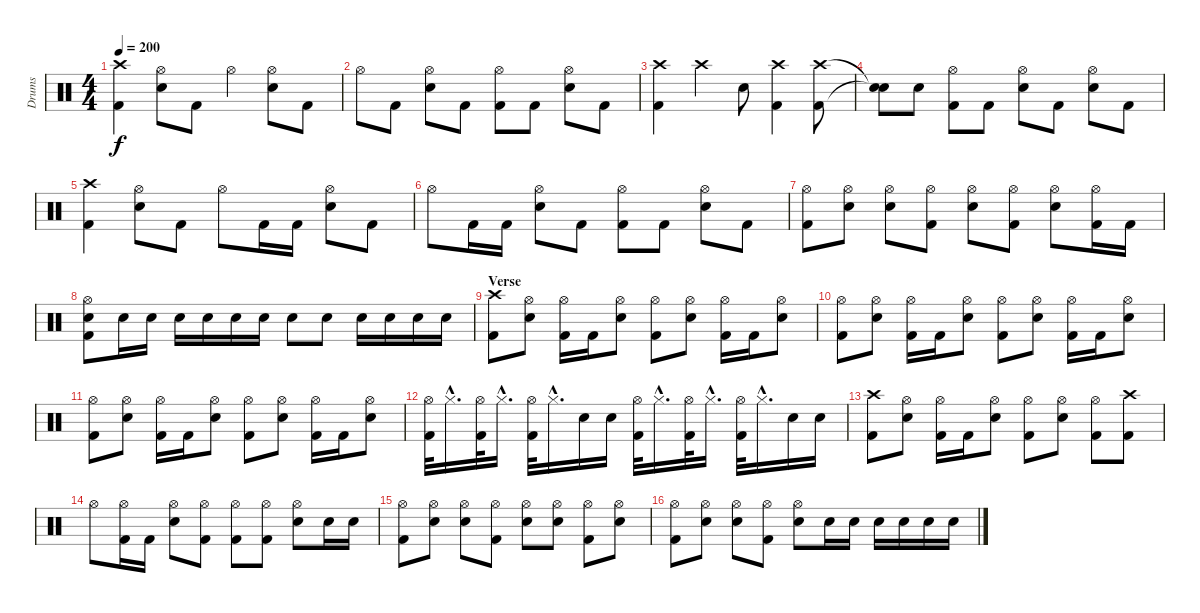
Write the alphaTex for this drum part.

\track ("Drums" "Drums") {instrument percussion}
\staff {score}
\articulation defaults
\ts (4 4)
\tempo 200
\clef neutral
\ks c
("Kick (hit) 2" "Crash high (hit)").4{dy f} ("Electric Snare (hit)" "Hi-Hat (open)").8 "Kick (hit) 2".8 "Hi-Hat (open)".4 ("Electric Snare (hit)" "Hi-Hat (open)").8 "Kick (hit) 2".8 |
"Hi-Hat (open)".8 "Kick (hit) 2".8 ("Electric Snare (hit)" "Hi-Hat (open)").8 "Kick (hit) 2".8 ("Kick (hit) 2" "Hi-Hat (open)").8 "Kick (hit) 2".8 ("Electric Snare (hit)" "Hi-Hat (open)").8 "Kick (hit) 2".8 |
("Kick (hit) 2" "Crash high (hit)").4 "Crash high (hit)".4 "Electric Snare (hit)".8 ("Kick (hit) 2" "Crash high (hit)").4 ("Kick (hit) 2" "Crash high (hit)").8 |
("Snare (hit)"{t} "Snare (hit)"{t}).8 "Electric Snare (hit)".8 ("Kick (hit) 2" "Hi-Hat (open)").8 "Kick (hit) 2".8 ("Electric Snare (hit)" "Hi-Hat (open)").8 "Kick (hit) 2".8 ("Electric Snare (hit)" "Hi-Hat (open)").8 "Kick (hit) 2".8 |
("Kick (hit) 2" "Crash high (hit)").4 ("Hi-Hat (open)" "Electric Snare (hit)").8 "Kick (hit) 2".8 "Hi-Hat (open)".8 "Kick (hit) 2".16 "Kick (hit) 2".16 ("Hi-Hat (open)" "Electric Snare (hit)").8 "Kick (hit) 2".8 |
"Hi-Hat (open)".8 "Kick (hit) 2".16 "Kick (hit) 2".16 ("Electric Snare (hit)" "Hi-Hat (open)").8 "Kick (hit) 2".8 ("Kick (hit) 2" "Hi-Hat (open)").8 "Kick (hit) 2".8 ("Electric Snare (hit)" "Hi-Hat (open)").8 "Kick (hit) 2".8 |
("Kick (hit) 2" "Hi-Hat (open)").8 ("Electric Snare (hit)" "Hi-Hat (open)").8 ("Electric Snare (hit)" "Hi-Hat (open)").8 ("Kick (hit) 2" "Hi-Hat (open)").8 ("Electric Snare (hit)" "Hi-Hat (open)").8 ("Kick (hit) 2" "Hi-Hat (open)").8 ("Electric Snare (hit)" "Hi-Hat (open)").8 ("Kick (hit) 2" "Hi-Hat (open)").16 "Kick (hit) 2".16 |
("Kick (hit) 2" "Electric Snare (hit)" "Hi-Hat (open)").8 "Electric Snare (hit)".16 "Electric Snare (hit)".16 "Electric Snare (hit)".16 "Electric Snare (hit)".16 "Electric Snare (hit)".16 "Electric Snare (hit)".16 "Electric Snare (hit)".8 "Electric Snare (hit)".8 "Electric Snare (hit)".16 "Electric Snare (hit)".16 "Electric Snare (hit)".16 "Electric Snare (hit)".16 |
\section ("" "Verse")
("Crash high (hit)" "Kick (hit) 2").8 ("Hi-Hat (open)" "Electric Snare (hit)").8 ("Hi-Hat (open)" "Kick (hit) 2").16 "Kick (hit) 2".16 ("Hi-Hat (open)" "Electric Snare (hit)").8 ("Hi-Hat (open)" "Kick (hit) 2").8 ("Hi-Hat (open)" "Electric Snare (hit)").8 ("Hi-Hat (open)" "Kick (hit) 2").16 "Kick (hit) 2".16 ("Hi-Hat (open)" "Electric Snare (hit)").8 |
("Hi-Hat (open)" "Kick (hit) 2").8 ("Hi-Hat (open)" "Electric Snare (hit)").8 ("Hi-Hat (open)" "Kick (hit) 2").16 "Kick (hit) 2".16 ("Hi-Hat (open)" "Electric Snare (hit)").8 ("Hi-Hat (open)" "Kick (hit) 2").8 ("Hi-Hat (open)" "Electric Snare (hit)").8 ("Hi-Hat (open)" "Kick (hit) 2").16 "Kick (hit) 2".16 ("Hi-Hat (open)" "Electric Snare (hit)").8 |
("Hi-Hat (open)" "Kick (hit) 2").8 ("Hi-Hat (open)" "Electric Snare (hit)").8 ("Hi-Hat (open)" "Kick (hit) 2").16 "Kick (hit) 2".16 ("Hi-Hat (open)" "Electric Snare (hit)").8 ("Hi-Hat (open)" "Kick (hit) 2").8 ("Hi-Hat (open)" "Electric Snare (hit)").8 ("Hi-Hat (open)" "Kick (hit) 2").16 "Kick (hit) 2".16 ("Hi-Hat (open)" "Electric Snare (hit)").8 |
("Hi-Hat (open)" "Kick (hit) 2").32 "Hi-Hat (closed)"{hac}.16{d} ("Hi-Hat (open)" "Kick (hit) 2").32 "Hi-Hat (closed)"{hac}.16{d} ("Hi-Hat (open)" "Kick (hit) 2").32 "Hi-Hat (closed)"{hac}.16{d} "Electric Snare (hit)".16 "Electric Snare (hit)".16 ("Hi-Hat (open)" "Kick (hit) 2").32 "Hi-Hat (closed)"{hac}.16{d} ("Hi-Hat (open)" "Kick (hit) 2").32 "Hi-Hat (closed)"{hac}.16{d} ("Hi-Hat (open)" "Kick (hit) 2").32 "Hi-Hat (closed)"{hac}.16{d} "Electric Snare (hit)".16 "Electric Snare (hit)".16 |
("Crash high (hit)" "Kick (hit) 2").8 ("Hi-Hat (open)" "Electric Snare (hit)").8 ("Hi-Hat (open)" "Kick (hit) 2").16 "Kick (hit) 2".16 ("Hi-Hat (open)" "Electric Snare (hit)").8 ("Hi-Hat (open)" "Kick (hit) 2").8 ("Hi-Hat (open)" "Electric Snare (hit)").8 ("Hi-Hat (open)" "Kick (hit) 2").8 ("Crash high (hit)" "Kick (hit) 2").8 |
"Hi-Hat (open)".8 ("Hi-Hat (open)" "Kick (hit) 2").16 "Kick (hit) 2".16 ("Hi-Hat (open)" "Electric Snare (hit)").8 ("Hi-Hat (open)" "Kick (hit) 2").8 ("Hi-Hat (open)" "Kick (hit) 2").8 ("Hi-Hat (open)" "Kick (hit) 2").8 ("Hi-Hat (open)" "Electric Snare (hit)").8 "Electric Snare (hit)".16 "Electric Snare (hit)".16 |
("Hi-Hat (open)" "Kick (hit) 2").8 ("Hi-Hat (open)" "Electric Snare (hit)").8 ("Hi-Hat (open)" "Electric Snare (hit)").8 ("Hi-Hat (open)" "Kick (hit) 2").8 ("Hi-Hat (open)" "Electric Snare (hit)").8 ("Hi-Hat (open)" "Electric Snare (hit)").8 ("Hi-Hat (open)" "Kick (hit) 2").8 ("Hi-Hat (open)" "Electric Snare (hit)").8 |
("Hi-Hat (open)" "Kick (hit) 2").8 ("Hi-Hat (open)" "Electric Snare (hit)").8 ("Hi-Hat (open)" "Electric Snare (hit)").8 ("Hi-Hat (open)" "Kick (hit) 2").8 ("Hi-Hat (open)" "Electric Snare (hit)").8 "Electric Snare (hit)".16 "Electric Snare (hit)".16 "Electric Snare (hit)".16 "Electric Snare (hit)".16 "Electric Snare (hit)".16 "Electric Snare (hit)".16
